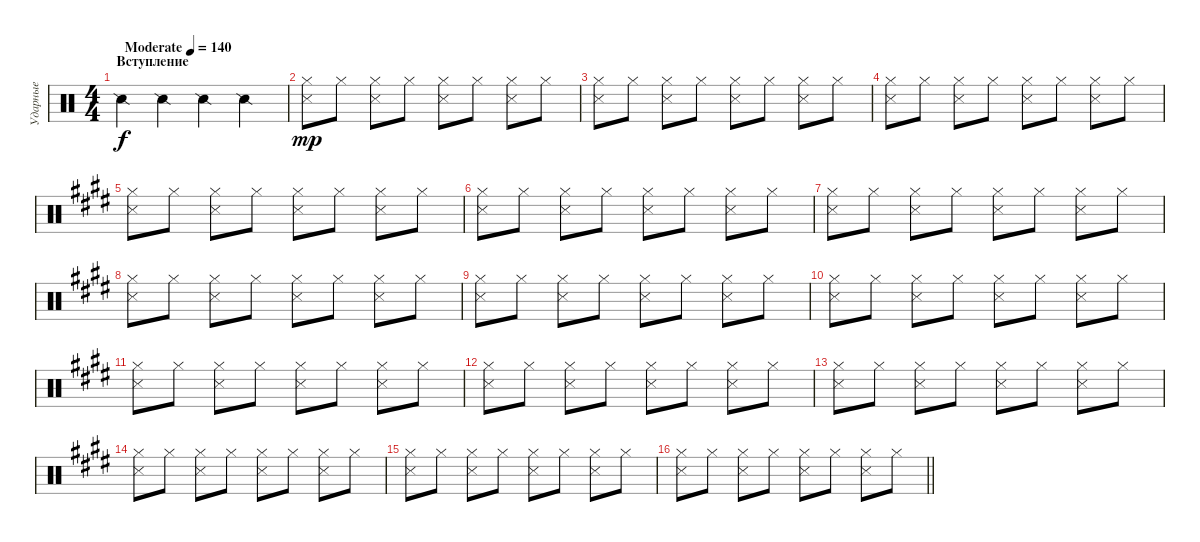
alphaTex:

\track ("Ударные" "Ударные") {instrument percussion}
\staff {score}
\articulation defaults
\ts (4 4)
\section ("" "Вступление")
\tempo (140 "Moderate")
\clef neutral
\ks c "Snare (side stick) 2".4{dy f} "Snare (side stick) 2".4 "Snare (side stick) 2".4 "Snare (side stick) 2".4
|
("Hi-Hat (closed)" "Snare (side stick) 3").8{dy mp} "Hi-Hat (closed)".8 ("Hi-Hat (closed)" "Snare (side stick) 3").8 "Hi-Hat (closed)".8 ("Hi-Hat (closed)" "Snare (side stick) 3").8 "Hi-Hat (closed)".8 ("Hi-Hat (closed)" "Snare (side stick) 3").8 "Hi-Hat (closed)".8 |
("Hi-Hat (closed)" "Snare (side stick) 3").8 "Hi-Hat (closed)".8 ("Hi-Hat (closed)" "Snare (side stick) 3").8 "Hi-Hat (closed)".8 ("Hi-Hat (closed)" "Snare (side stick) 3").8 "Hi-Hat (closed)".8 ("Hi-Hat (closed)" "Snare (side stick) 3").8 "Hi-Hat (closed)".8 |
("Hi-Hat (closed)" "Snare (side stick) 3").8 "Hi-Hat (closed)".8 ("Hi-Hat (closed)" "Snare (side stick) 3").8 "Hi-Hat (closed)".8 ("Hi-Hat (closed)" "Snare (side stick) 3").8 "Hi-Hat (closed)".8 ("Hi-Hat (closed)" "Snare (side stick) 3").8 "Hi-Hat (closed)".8 |
\ks e
("Hi-Hat (closed)" "Snare (side stick) 3").8 "Hi-Hat (closed)".8 ("Hi-Hat (closed)" "Snare (side stick) 3").8 "Hi-Hat (closed)".8 ("Hi-Hat (closed)" "Snare (side stick) 3").8 "Hi-Hat (closed)".8 ("Hi-Hat (closed)" "Snare (side stick) 3").8 "Hi-Hat (closed)".8 |
("Hi-Hat (closed)" "Snare (side stick) 3").8 "Hi-Hat (closed)".8 ("Hi-Hat (closed)" "Snare (side stick) 3").8 "Hi-Hat (closed)".8 ("Hi-Hat (closed)" "Snare (side stick) 3").8 "Hi-Hat (closed)".8 ("Hi-Hat (closed)" "Snare (side stick) 3").8 "Hi-Hat (closed)".8 |
("Hi-Hat (closed)" "Snare (side stick) 3").8 "Hi-Hat (closed)".8 ("Hi-Hat (closed)" "Snare (side stick) 3").8 "Hi-Hat (closed)".8 ("Hi-Hat (closed)" "Snare (side stick) 3").8 "Hi-Hat (closed)".8 ("Hi-Hat (closed)" "Snare (side stick) 3").8 "Hi-Hat (closed)".8 |
("Hi-Hat (closed)" "Snare (side stick) 3").8 "Hi-Hat (closed)".8 ("Hi-Hat (closed)" "Snare (side stick) 3").8 "Hi-Hat (closed)".8 ("Hi-Hat (closed)" "Snare (side stick) 3").8 "Hi-Hat (closed)".8 ("Hi-Hat (closed)" "Snare (side stick) 3").8 "Hi-Hat (closed)".8 |
("Hi-Hat (closed)" "Snare (side stick) 3").8 "Hi-Hat (closed)".8 ("Hi-Hat (closed)" "Snare (side stick) 3").8 "Hi-Hat (closed)".8 ("Hi-Hat (closed)" "Snare (side stick) 3").8 "Hi-Hat (closed)".8 ("Hi-Hat (closed)" "Snare (side stick) 3").8 "Hi-Hat (closed)".8 |
("Hi-Hat (closed)" "Snare (side stick) 3").8 "Hi-Hat (closed)".8 ("Hi-Hat (closed)" "Snare (side stick) 3").8 "Hi-Hat (closed)".8 ("Hi-Hat (closed)" "Snare (side stick) 3").8 "Hi-Hat (closed)".8 ("Hi-Hat (closed)" "Snare (side stick) 3").8 "Hi-Hat (closed)".8 |
("Hi-Hat (closed)" "Snare (side stick) 3").8 "Hi-Hat (closed)".8 ("Hi-Hat (closed)" "Snare (side stick) 3").8 "Hi-Hat (closed)".8 ("Hi-Hat (closed)" "Snare (side stick) 3").8 "Hi-Hat (closed)".8 ("Hi-Hat (closed)" "Snare (side stick) 3").8 "Hi-Hat (closed)".8 |
("Hi-Hat (closed)" "Snare (side stick) 3").8 "Hi-Hat (closed)".8 ("Hi-Hat (closed)" "Snare (side stick) 3").8 "Hi-Hat (closed)".8 ("Hi-Hat (closed)" "Snare (side stick) 3").8 "Hi-Hat (closed)".8 ("Hi-Hat (closed)" "Snare (side stick) 3").8 "Hi-Hat (closed)".8 |
("Hi-Hat (closed)" "Snare (side stick) 3").8 "Hi-Hat (closed)".8 ("Hi-Hat (closed)" "Snare (side stick) 3").8 "Hi-Hat (closed)".8 ("Hi-Hat (closed)" "Snare (side stick) 3").8 "Hi-Hat (closed)".8 ("Hi-Hat (closed)" "Snare (side stick) 3").8 "Hi-Hat (closed)".8 |
("Hi-Hat (closed)" "Snare (side stick) 3").8 "Hi-Hat (closed)".8 ("Hi-Hat (closed)" "Snare (side stick) 3").8 "Hi-Hat (closed)".8 ("Hi-Hat (closed)" "Snare (side stick) 3").8 "Hi-Hat (closed)".8 ("Hi-Hat (closed)" "Snare (side stick) 3").8 "Hi-Hat (closed)".8 |
("Hi-Hat (closed)" "Snare (side stick) 3").8 "Hi-Hat (closed)".8 ("Hi-Hat (closed)" "Snare (side stick) 3").8 "Hi-Hat (closed)".8 ("Hi-Hat (closed)" "Snare (side stick) 3").8 "Hi-Hat (closed)".8 ("Hi-Hat (closed)" "Snare (side stick) 3").8 "Hi-Hat (closed)".8 |
\barLineRight lightlight
("Hi-Hat (closed)" "Snare (side stick) 3").8 "Hi-Hat (closed)".8 ("Hi-Hat (closed)" "Snare (side stick) 3").8 "Hi-Hat (closed)".8 ("Hi-Hat (closed)" "Snare (side stick) 3").8 "Hi-Hat (closed)".8 ("Hi-Hat (closed)" "Snare (side stick) 3").8 "Hi-Hat (closed)".8
